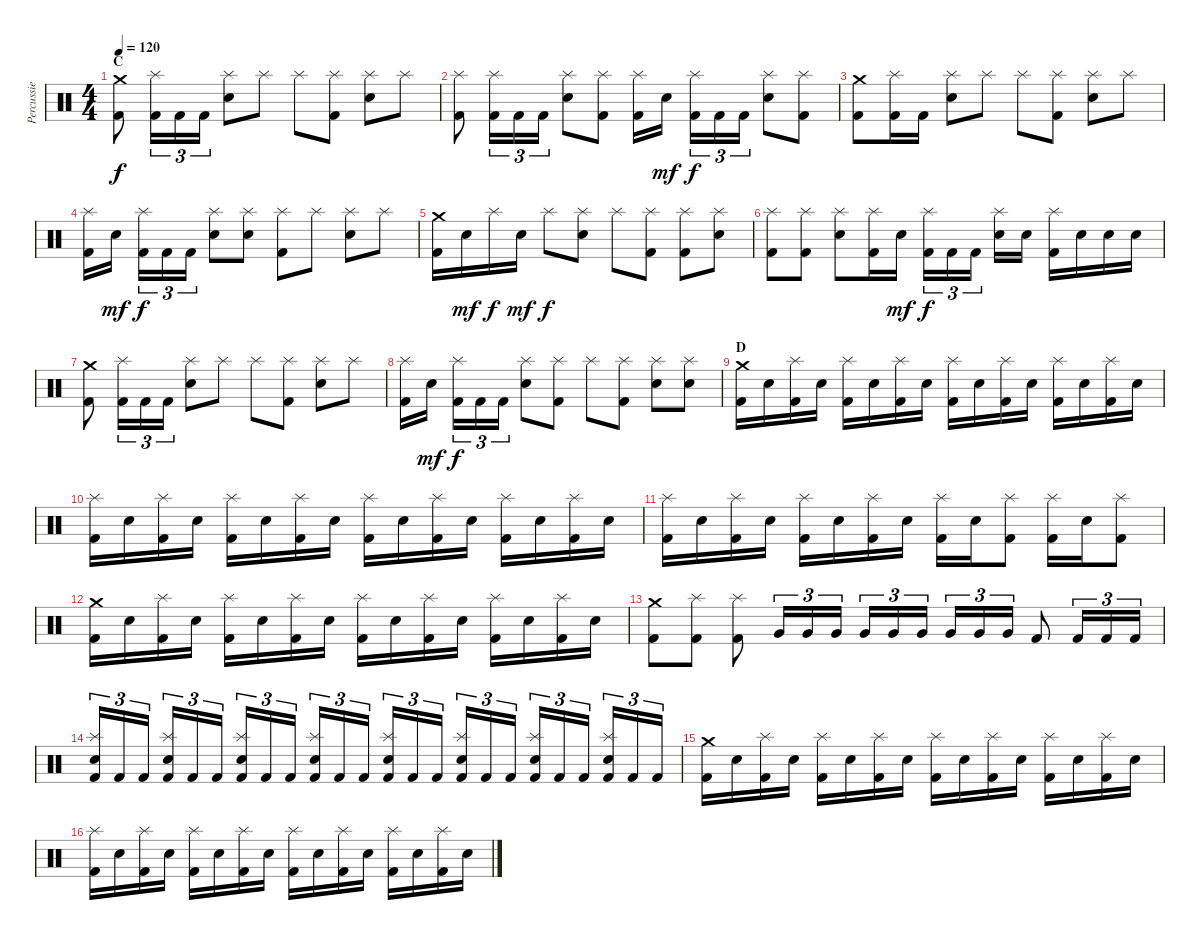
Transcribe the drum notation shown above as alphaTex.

\track ("Percussie" "Percussie") {instrument percussion}
\staff {score}
\articulation defaults
\ts (4 4)
\section ("" "C")
\tempo 120
\clef neutral
\ks c
("Crash medium (hit)" "Kick (hit) 2").8{dy f} ("Splash (hit)" "Kick (hit) 2").16{tu (3 2)} "Kick (hit) 2".16{tu (3 2)} "Kick (hit) 2".16{tu (3 2)} ("Splash (hit)" "Electric Snare (hit)").8 "Splash (hit)".8 "Splash (hit)".8 ("Splash (hit)" "Kick (hit) 2").8 ("Splash (hit)" "Electric Snare (hit)").8 "Splash (hit)".8 |
("Splash (hit)" "Kick (hit) 2").8 ("Splash (hit)" "Kick (hit) 2").16{tu (3 2)} "Kick (hit) 2".16{tu (3 2)} "Kick (hit) 2".16{tu (3 2)} ("Splash (hit)" "Electric Snare (hit)").8 ("Splash (hit)" "Kick (hit) 2").8 ("Splash (hit)" "Kick (hit) 2").16 "Electric Snare (hit)".16{dy mf} ("Splash (hit)" "Kick (hit) 2").16{tu (3 2) dy f} "Kick (hit) 2".16{tu (3 2)} "Kick (hit) 2".16{tu (3 2)} ("Splash (hit)" "Electric Snare (hit)").8 ("Splash (hit)" "Kick (hit) 2").8 |
("Crash medium (hit)" "Kick (hit) 2").8 ("Splash (hit)" "Kick (hit) 2").16 "Kick (hit) 2".16 ("Splash (hit)" "Electric Snare (hit)").8 "Splash (hit)".8 "Splash (hit)".8 ("Splash (hit)" "Kick (hit) 2").8 ("Splash (hit)" "Electric Snare (hit)").8 "Splash (hit)".8 |
("Splash (hit)" "Kick (hit) 2").16 "Electric Snare (hit)".16{dy mf} ("Splash (hit)" "Kick (hit) 2").16{tu (3 2) dy f} "Kick (hit) 2".16{tu (3 2)} "Kick (hit) 2".16{tu (3 2)} ("Splash (hit)" "Electric Snare (hit)").8 ("Splash (hit)" "Electric Snare (hit)").8 ("Splash (hit)" "Kick (hit) 2").8 "Splash (hit)".8 ("Splash (hit)" "Electric Snare (hit)").8 "Splash (hit)".8 |
("Crash medium (hit)" "Kick (hit) 2").16 "Electric Snare (hit)".16{dy mf} "Splash (hit)".16{dy f} "Electric Snare (hit)".16{dy mf} "Splash (hit)".8{dy f} ("Splash (hit)" "Electric Snare (hit)").8 "Splash (hit)".8 ("Splash (hit)" "Kick (hit) 2").8 ("Splash (hit)" "Kick (hit) 2").8 ("Splash (hit)" "Electric Snare (hit)").8 |
("Splash (hit)" "Kick (hit) 2").8 ("Splash (hit)" "Kick (hit) 2").8 ("Splash (hit)" "Electric Snare (hit)").8 ("Splash (hit)" "Kick (hit) 2").16 "Electric Snare (hit)".16{dy mf} ("Splash (hit)" "Kick (hit) 2").16{tu (3 2) dy f} "Kick (hit) 2".16{tu (3 2)} "Kick (hit) 2".16{tu (3 2)} ("Splash (hit)" "Electric Snare (hit)").16 "Electric Snare (hit)".16 ("Splash (hit)" "Kick (hit) 2").16 "Electric Snare (hit)".16 "Electric Snare (hit)".16 "Electric Snare (hit)".16 |
("Crash medium (hit)" "Kick (hit) 2").8 ("Splash (hit)" "Kick (hit) 2").16{tu (3 2)} "Kick (hit) 2".16{tu (3 2)} "Kick (hit) 2".16{tu (3 2)} ("Splash (hit)" "Electric Snare (hit)").8 "Splash (hit)".8 "Splash (hit)".8 ("Splash (hit)" "Kick (hit) 2").8 ("Splash (hit)" "Electric Snare (hit)").8 "Splash (hit)".8 |
("Splash (hit)" "Kick (hit) 2").16 "Electric Snare (hit)".16{dy mf} ("Splash (hit)" "Kick (hit) 2").16{tu (3 2) dy f} "Kick (hit) 2".16{tu (3 2)} "Kick (hit) 2".16{tu (3 2)} ("Splash (hit)" "Electric Snare (hit)").8 ("Splash (hit)" "Kick (hit) 2").8 "Splash (hit)".8 ("Splash (hit)" "Kick (hit) 2").8 ("Splash (hit)" "Electric Snare (hit)").8 ("Splash (hit)" "Electric Snare (hit)").8 |
\section ("" "D")
("Crash medium (hit)" "Kick (hit) 2").16 "Electric Snare (hit)".16 ("Splash (hit)" "Kick (hit) 2").16 "Electric Snare (hit)".16 ("Splash (hit)" "Kick (hit) 2").16 "Electric Snare (hit)".16 ("Splash (hit)" "Kick (hit) 2").16 "Electric Snare (hit)".16 ("Splash (hit)" "Kick (hit) 2").16 "Electric Snare (hit)".16 ("Splash (hit)" "Kick (hit) 2").16 "Electric Snare (hit)".16 ("Splash (hit)" "Kick (hit) 2").16 "Electric Snare (hit)".16 ("Splash (hit)" "Kick (hit) 2").16 "Electric Snare (hit)".16 |
("Splash (hit)" "Kick (hit) 2").16 "Electric Snare (hit)".16 ("Splash (hit)" "Kick (hit) 2").16 "Electric Snare (hit)".16 ("Splash (hit)" "Kick (hit) 2").16 "Electric Snare (hit)".16 ("Splash (hit)" "Kick (hit) 2").16 "Electric Snare (hit)".16 ("Splash (hit)" "Kick (hit) 2").16 "Electric Snare (hit)".16 ("Splash (hit)" "Kick (hit) 2").16 "Electric Snare (hit)".16 ("Splash (hit)" "Kick (hit) 2").16 "Electric Snare (hit)".16 ("Splash (hit)" "Kick (hit) 2").16 "Electric Snare (hit)".16 |
("Splash (hit)" "Kick (hit) 2").16 "Electric Snare (hit)".16 ("Splash (hit)" "Kick (hit) 2").16 "Electric Snare (hit)".16 ("Splash (hit)" "Kick (hit) 2").16 "Electric Snare (hit)".16 ("Splash (hit)" "Kick (hit) 2").16 "Electric Snare (hit)".16 ("Splash (hit)" "Kick (hit) 2").16 "Electric Snare (hit)".16 ("Splash (hit)" "Kick (hit) 2").8 ("Splash (hit)" "Kick (hit) 2").16 "Electric Snare (hit)".16 ("Splash (hit)" "Kick (hit) 2").8 |
("Crash medium (hit)" "Kick (hit) 2").16 "Electric Snare (hit)".16 ("Splash (hit)" "Kick (hit) 2").16 "Electric Snare (hit)".16 ("Splash (hit)" "Kick (hit) 2").16 "Electric Snare (hit)".16 ("Splash (hit)" "Kick (hit) 2").16 "Electric Snare (hit)".16 ("Splash (hit)" "Kick (hit) 2").16 "Electric Snare (hit)".16 ("Splash (hit)" "Kick (hit) 2").16 "Electric Snare (hit)".16 ("Splash (hit)" "Kick (hit) 2").16 "Electric Snare (hit)".16 ("Splash (hit)" "Kick (hit) 2").16 "Electric Snare (hit)".16 |
("Crash medium (hit)" "Kick (hit) 2").8 ("Splash (hit)" "Kick (hit) 2").8 ("Splash (hit)" "Kick (hit) 2").8 "Very Low Tom (hit)".16{tu (3 2)} "Very Low Tom (hit)".16{tu (3 2)} "Very Low Tom (hit)".16{tu (3 2)} "Very Low Tom (hit)".16{tu (3 2)} "Very Low Tom (hit)".16{tu (3 2)} "Very Low Tom (hit)".16{tu (3 2)} "Very Low Tom (hit)".16{tu (3 2)} "Very Low Tom (hit)".16{tu (3 2)} "Very Low Tom (hit)".16{tu (3 2)} "Kick (hit) 2".8 "Kick (hit) 2".16{tu (3 2)} "Kick (hit) 2".16{tu (3 2)} "Kick (hit) 2".16{tu (3 2)} |
("Splash (hit)" "Electric Snare (hit)" "Kick (hit) 2").16{tu (3 2)} "Kick (hit) 2".16{tu (3 2)} "Kick (hit) 2".16{tu (3 2)} ("Splash (hit)" "Electric Snare (hit)" "Kick (hit) 2").16{tu (3 2)} "Kick (hit) 2".16{tu (3 2)} "Kick (hit) 2".16{tu (3 2)} ("Splash (hit)" "Electric Snare (hit)" "Kick (hit) 2").16{tu (3 2)} "Kick (hit) 2".16{tu (3 2)} "Kick (hit) 2".16{tu (3 2)} ("Splash (hit)" "Electric Snare (hit)" "Kick (hit) 2").16{tu (3 2)} "Kick (hit) 2".16{tu (3 2)} "Kick (hit) 2".16{tu (3 2)} ("Splash (hit)" "Electric Snare (hit)" "Kick (hit) 2").16{tu (3 2)} "Kick (hit) 2".16{tu (3 2)} "Kick (hit) 2".16{tu (3 2)} ("Splash (hit)" "Electric Snare (hit)" "Kick (hit) 2").16{tu (3 2)} "Kick (hit) 2".16{tu (3 2)} "Kick (hit) 2".16{tu (3 2)} ("Splash (hit)" "Electric Snare (hit)" "Kick (hit) 2").16{tu (3 2)} "Kick (hit) 2".16{tu (3 2)} "Kick (hit) 2".16{tu (3 2)} ("Splash (hit)" "Electric Snare (hit)" "Kick (hit) 2").16{tu (3 2)} "Kick (hit) 2".16{tu (3 2)} "Kick (hit) 2".16{tu (3 2)} |
("Crash medium (hit)" "Kick (hit) 2").16 "Electric Snare (hit)".16 ("Splash (hit)" "Kick (hit) 2").16 "Electric Snare (hit)".16 ("Splash (hit)" "Kick (hit) 2").16 "Electric Snare (hit)".16 ("Splash (hit)" "Kick (hit) 2").16 "Electric Snare (hit)".16 ("Splash (hit)" "Kick (hit) 2").16 "Electric Snare (hit)".16 ("Splash (hit)" "Kick (hit) 2").16 "Electric Snare (hit)".16 ("Splash (hit)" "Kick (hit) 2").16 "Electric Snare (hit)".16 ("Splash (hit)" "Kick (hit) 2").16 "Electric Snare (hit)".16 |
("Splash (hit)" "Kick (hit) 2").16 "Electric Snare (hit)".16 ("Splash (hit)" "Kick (hit) 2").16 "Electric Snare (hit)".16 ("Splash (hit)" "Kick (hit) 2").16 "Electric Snare (hit)".16 ("Splash (hit)" "Kick (hit) 2").16 "Electric Snare (hit)".16 ("Splash (hit)" "Kick (hit) 2").16 "Electric Snare (hit)".16 ("Splash (hit)" "Kick (hit) 2").16 "Electric Snare (hit)".16 ("Splash (hit)" "Kick (hit) 2").16 "Electric Snare (hit)".16 ("Splash (hit)" "Kick (hit) 2").16 "Electric Snare (hit)".16
